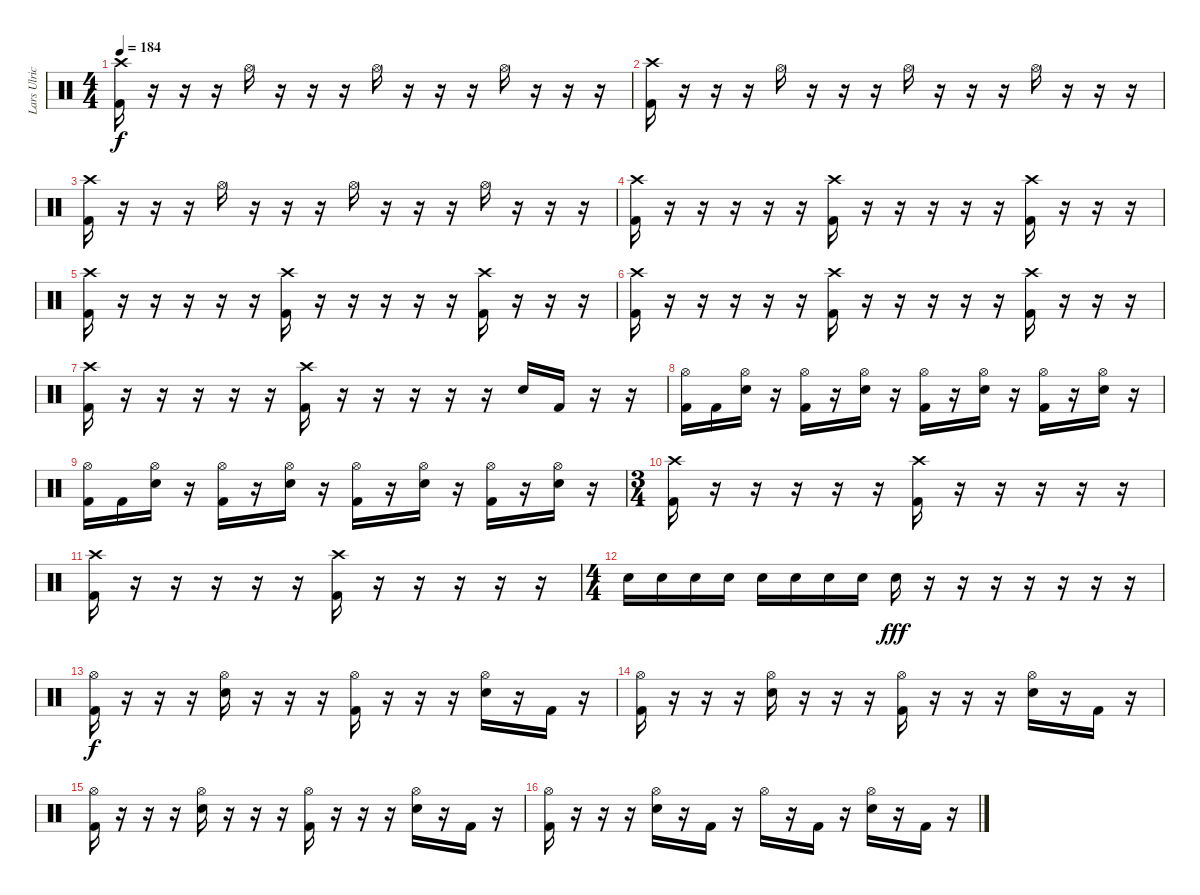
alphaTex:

\track ("Lars Ulrich" "Lars Ulric") {instrument percussion}
\staff {score}
\articulation defaults
\ts (4 4)
\tempo 184
\clef neutral
\ks c
("Crash high (hit)" "Kick (hit) 2").16{dy f} r.16 r.16 r.16 "Hi-Hat (open)".16 r.16 r.16 r.16 "Hi-Hat (open)".16 r.16 r.16 r.16 "Hi-Hat (open)".16 r.16 r.16 r.16 |
("Crash high (hit)" "Kick (hit) 2").16 r.16 r.16 r.16 "Hi-Hat (open)".16 r.16 r.16 r.16 "Hi-Hat (open)".16 r.16 r.16 r.16 "Hi-Hat (open)".16 r.16 r.16 r.16 |
("Crash high (hit)" "Kick (hit) 2").16 r.16 r.16 r.16 "Hi-Hat (open)".16 r.16 r.16 r.16 "Hi-Hat (open)".16 r.16 r.16 r.16 "Hi-Hat (open)".16 r.16 r.16 r.16 |
("Crash high (hit)" "Kick (hit) 2").16 r.16 r.16 r.16 r.16 r.16 ("Crash high (hit)" "Kick (hit) 2").16 r.16 r.16 r.16 r.16 r.16 ("Crash high (hit)" "Kick (hit) 2").16 r.16 r.16 r.16 |
("Crash high (hit)" "Kick (hit) 2").16 r.16 r.16 r.16 r.16 r.16 ("Crash high (hit)" "Kick (hit) 2").16 r.16 r.16 r.16 r.16 r.16 ("Crash high (hit)" "Kick (hit) 2").16 r.16 r.16 r.16 |
("Crash high (hit)" "Kick (hit) 2").16 r.16 r.16 r.16 r.16 r.16 ("Crash high (hit)" "Kick (hit) 2").16 r.16 r.16 r.16 r.16 r.16 ("Crash high (hit)" "Kick (hit) 2").16 r.16 r.16 r.16 |
("Crash high (hit)" "Kick (hit) 2").16 r.16 r.16 r.16 r.16 r.16 ("Crash high (hit)" "Kick (hit) 2").16 r.16 r.16 r.16 r.16 r.16 "Electric Snare (hit)".16 "Kick (hit) 2".16 r.16 r.16 |
("Hi-Hat (open)" "Kick (hit) 2").16 "Kick (hit) 2".16 ("Electric Snare (hit)" "Hi-Hat (open)").16 r.16 ("Hi-Hat (open)" "Kick (hit) 2").16 r.16 ("Electric Snare (hit)" "Hi-Hat (open)").16 r.16 ("Hi-Hat (open)" "Kick (hit) 2").16 r.16 ("Electric Snare (hit)" "Hi-Hat (open)").16 r.16 ("Hi-Hat (open)" "Kick (hit) 2").16 r.16 ("Electric Snare (hit)" "Hi-Hat (open)").16 r.16 |
("Hi-Hat (open)" "Kick (hit) 2").16 "Kick (hit) 2".16 ("Electric Snare (hit)" "Hi-Hat (open)").16 r.16 ("Hi-Hat (open)" "Kick (hit) 2").16 r.16 ("Electric Snare (hit)" "Hi-Hat (open)").16 r.16 ("Hi-Hat (open)" "Kick (hit) 2").16 r.16 ("Electric Snare (hit)" "Hi-Hat (open)").16 r.16 ("Hi-Hat (open)" "Kick (hit) 2").16 r.16 ("Electric Snare (hit)" "Hi-Hat (open)").16 r.16 |
\ts (3 4)
("Crash high (hit)" "Kick (hit) 2").16 r.16 r.16 r.16 r.16 r.16 ("Crash high (hit)" "Kick (hit) 2").16 r.16 r.16 r.16 r.16 r.16 |
("Crash high (hit)" "Kick (hit) 2").16 r.16 r.16 r.16 r.16 r.16 ("Crash high (hit)" "Kick (hit) 2").16 r.16 r.16 r.16 r.16 r.16 |
\ts (4 4)
"Electric Snare (hit)".16 "Electric Snare (hit)".16 "Electric Snare (hit)".16 "Electric Snare (hit)".16 "Electric Snare (hit)".16 "Electric Snare (hit)".16 "Electric Snare (hit)".16 "Electric Snare (hit)".16 "Electric Snare (hit)".16{dy fff} r.16 r.16 r.16 r.16 r.16 r.16 r.16 |
("Hi-Hat (open)" "Kick (hit) 2").16{dy f} r.16 r.16 r.16 ("Electric Snare (hit)" "Hi-Hat (open)").16 r.16 r.16 r.16 ("Hi-Hat (open)" "Kick (hit) 2").16 r.16 r.16 r.16 ("Electric Snare (hit)" "Hi-Hat (open)").16 r.16 "Kick (hit) 2".16 r.16 |
("Hi-Hat (open)" "Kick (hit) 2").16 r.16 r.16 r.16 ("Electric Snare (hit)" "Hi-Hat (open)").16 r.16 r.16 r.16 ("Hi-Hat (open)" "Kick (hit) 2").16 r.16 r.16 r.16 ("Electric Snare (hit)" "Hi-Hat (open)").16 r.16 "Kick (hit) 2".16 r.16 |
("Hi-Hat (open)" "Kick (hit) 2").16 r.16 r.16 r.16 ("Electric Snare (hit)" "Hi-Hat (open)").16 r.16 r.16 r.16 ("Hi-Hat (open)" "Kick (hit) 2").16 r.16 r.16 r.16 ("Electric Snare (hit)" "Hi-Hat (open)").16 r.16 "Kick (hit) 2".16 r.16 |
("Hi-Hat (open)" "Kick (hit) 2").16 r.16 r.16 r.16 ("Electric Snare (hit)" "Hi-Hat (open)").16 r.16 "Kick (hit) 2".16 r.16 "Hi-Hat (open)".16 r.16 "Kick (hit) 2".16 r.16 ("Electric Snare (hit)" "Hi-Hat (open)").16 r.16 "Kick (hit) 2".16 r.16
